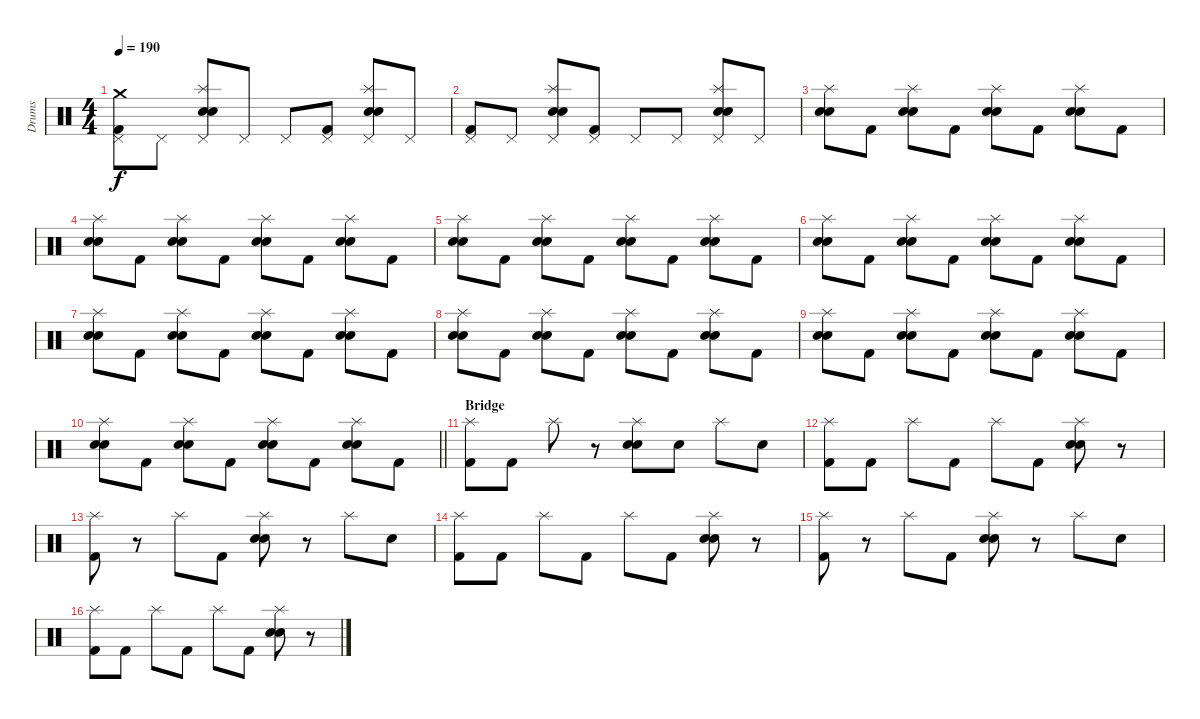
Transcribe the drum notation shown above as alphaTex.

\track ("Drums" "Drums") {instrument percussion}
\staff {score}
\articulation defaults
\ts (4 4)
\tempo 190
\clef neutral
\ks c
("Crash medium (hit)" "Pedal Hi-Hat (hit)" "Kick (hit) 2").8{dy f} "Pedal Hi-Hat (hit)".8 ("Splash (hit)" "Pedal Hi-Hat (hit)" "Electric Snare (hit)" "Snare (hit) 2").8 "Pedal Hi-Hat (hit)".8 "Pedal Hi-Hat (hit)".8 ("Pedal Hi-Hat (hit)" "Kick (hit) 2").8 ("Splash (hit)" "Pedal Hi-Hat (hit)" "Electric Snare (hit)" "Snare (hit) 2").8 "Pedal Hi-Hat (hit)".8 |
("Pedal Hi-Hat (hit)" "Kick (hit) 2").8 "Pedal Hi-Hat (hit)".8 ("Splash (hit)" "Pedal Hi-Hat (hit)" "Electric Snare (hit)" "Snare (hit) 2").8 ("Pedal Hi-Hat (hit)" "Kick (hit) 2").8 "Pedal Hi-Hat (hit)".8 "Pedal Hi-Hat (hit)".8 ("Splash (hit)" "Pedal Hi-Hat (hit)" "Electric Snare (hit)" "Snare (hit) 2").8 "Pedal Hi-Hat (hit)".8 |
("Splash (hit)" "Electric Snare (hit)" "Snare (hit) 2").8 "Kick (hit) 2".8 ("Splash (hit)" "Electric Snare (hit)" "Snare (hit) 2").8 "Kick (hit) 2".8 ("Splash (hit)" "Electric Snare (hit)" "Snare (hit) 2").8 "Kick (hit) 2".8 ("Splash (hit)" "Electric Snare (hit)" "Snare (hit) 2").8 "Kick (hit) 2".8 |
("Splash (hit)" "Electric Snare (hit)" "Snare (hit) 2").8 "Kick (hit) 2".8 ("Splash (hit)" "Electric Snare (hit)" "Snare (hit) 2").8 "Kick (hit) 2".8 ("Splash (hit)" "Electric Snare (hit)" "Snare (hit) 2").8 "Kick (hit) 2".8 ("Splash (hit)" "Electric Snare (hit)" "Snare (hit) 2").8 "Kick (hit) 2".8 |
("Splash (hit)" "Electric Snare (hit)" "Snare (hit) 2").8 "Kick (hit) 2".8 ("Splash (hit)" "Electric Snare (hit)" "Snare (hit) 2").8 "Kick (hit) 2".8 ("Splash (hit)" "Electric Snare (hit)" "Snare (hit) 2").8 "Kick (hit) 2".8 ("Splash (hit)" "Electric Snare (hit)" "Snare (hit) 2").8 "Kick (hit) 2".8 |
("Splash (hit)" "Electric Snare (hit)" "Snare (hit) 2").8 "Kick (hit) 2".8 ("Splash (hit)" "Electric Snare (hit)" "Snare (hit) 2").8 "Kick (hit) 2".8 ("Splash (hit)" "Electric Snare (hit)" "Snare (hit) 2").8 "Kick (hit) 2".8 ("Splash (hit)" "Electric Snare (hit)" "Snare (hit) 2").8 "Kick (hit) 2".8 |
("Splash (hit)" "Electric Snare (hit)" "Snare (hit) 2").8 "Kick (hit) 2".8 ("Splash (hit)" "Electric Snare (hit)" "Snare (hit) 2").8 "Kick (hit) 2".8 ("Splash (hit)" "Electric Snare (hit)" "Snare (hit) 2").8 "Kick (hit) 2".8 ("Splash (hit)" "Electric Snare (hit)" "Snare (hit) 2").8 "Kick (hit) 2".8 |
("Splash (hit)" "Electric Snare (hit)" "Snare (hit) 2").8 "Kick (hit) 2".8 ("Splash (hit)" "Electric Snare (hit)" "Snare (hit) 2").8 "Kick (hit) 2".8 ("Splash (hit)" "Electric Snare (hit)" "Snare (hit) 2").8 "Kick (hit) 2".8 ("Splash (hit)" "Electric Snare (hit)" "Snare (hit) 2").8 "Kick (hit) 2".8 |
("Splash (hit)" "Electric Snare (hit)" "Snare (hit) 2").8 "Kick (hit) 2".8 ("Splash (hit)" "Electric Snare (hit)" "Snare (hit) 2").8 "Kick (hit) 2".8 ("Splash (hit)" "Electric Snare (hit)" "Snare (hit) 2").8 "Kick (hit) 2".8 ("Splash (hit)" "Electric Snare (hit)" "Snare (hit) 2").8 "Kick (hit) 2".8 |
\barLineRight lightlight
("Splash (hit)" "Electric Snare (hit)" "Snare (hit) 2").8 "Kick (hit) 2".8 ("Splash (hit)" "Electric Snare (hit)" "Snare (hit) 2").8 "Kick (hit) 2".8 ("Splash (hit)" "Electric Snare (hit)" "Snare (hit) 2").8 "Kick (hit) 2".8 ("Splash (hit)" "Electric Snare (hit)" "Snare (hit) 2").8 "Kick (hit) 2".8 |
\section ("" "Bridge")
("Splash (hit)" "Kick (hit) 2").8 "Kick (hit) 2".8 "Splash (hit)".8 r.8 ("Splash (hit)" "Electric Snare (hit)" "Snare (hit) 2").8 "Electric Snare (hit)".8 "Splash (hit)".8 "Electric Snare (hit)".8 |
("Splash (hit)" "Kick (hit) 2").8 "Kick (hit) 2".8 "Splash (hit)".8 "Kick (hit) 2".8 "Splash (hit)".8 "Kick (hit) 2".8 ("Splash (hit)" "Electric Snare (hit)" "Snare (hit) 2").8 r.8 |
("Splash (hit)" "Kick (hit) 2").8 r.8 "Splash (hit)".8 "Kick (hit) 2".8 ("Splash (hit)" "Electric Snare (hit)" "Snare (hit) 2").8 r.8 "Splash (hit)".8 "Electric Snare (hit)".8 |
("Splash (hit)" "Kick (hit) 2").8 "Kick (hit) 2".8 "Splash (hit)".8 "Kick (hit) 2".8 "Splash (hit)".8 "Kick (hit) 2".8 ("Splash (hit)" "Electric Snare (hit)" "Snare (hit) 2").8 r.8 |
("Splash (hit)" "Kick (hit) 2").8 r.8 "Splash (hit)".8 "Kick (hit) 2".8 ("Splash (hit)" "Electric Snare (hit)" "Snare (hit) 2").8 r.8 "Splash (hit)".8 "Electric Snare (hit)".8 |
("Splash (hit)" "Kick (hit) 2").8 "Kick (hit) 2".8 "Splash (hit)".8 "Kick (hit) 2".8 "Splash (hit)".8 "Kick (hit) 2".8 ("Splash (hit)" "Electric Snare (hit)" "Snare (hit) 2").8 r.8
